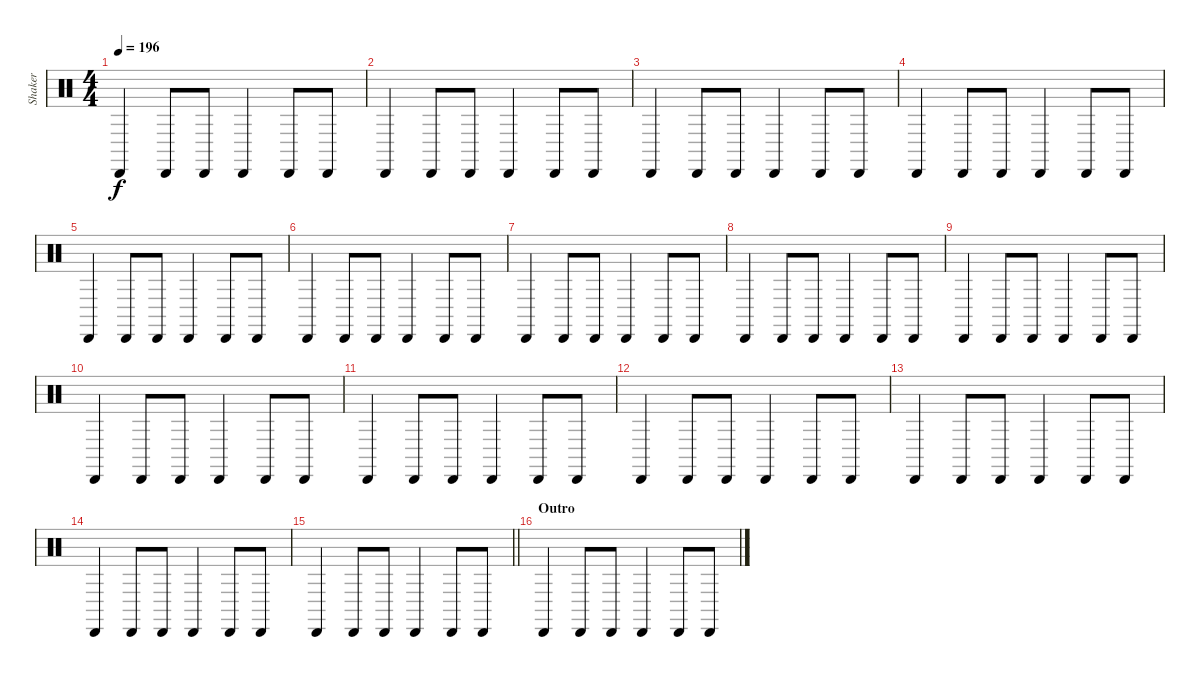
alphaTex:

\track ("Shaker" "Shaker") {instrument percussion bank 126}
\staff {score}
\articulation defaults
\ts (4 4)
\tempo 196
\clef neutral
\ks c "Cabasa (hit)".4{dy f} "Cabasa (hit)".8 "Cabasa (hit)".8 "Cabasa (hit)".4 "Cabasa (hit)".8 "Cabasa (hit)".8
|
"Cabasa (hit)".4 "Cabasa (hit)".8 "Cabasa (hit)".8 "Cabasa (hit)".4 "Cabasa (hit)".8 "Cabasa (hit)".8 |
"Cabasa (hit)".4 "Cabasa (hit)".8 "Cabasa (hit)".8 "Cabasa (hit)".4 "Cabasa (hit)".8 "Cabasa (hit)".8 |
"Cabasa (hit)".4 "Cabasa (hit)".8 "Cabasa (hit)".8 "Cabasa (hit)".4 "Cabasa (hit)".8 "Cabasa (hit)".8 |
"Cabasa (hit)".4 "Cabasa (hit)".8 "Cabasa (hit)".8 "Cabasa (hit)".4 "Cabasa (hit)".8 "Cabasa (hit)".8 |
"Cabasa (hit)".4 "Cabasa (hit)".8 "Cabasa (hit)".8 "Cabasa (hit)".4 "Cabasa (hit)".8 "Cabasa (hit)".8 |
"Cabasa (hit)".4 "Cabasa (hit)".8 "Cabasa (hit)".8 "Cabasa (hit)".4 "Cabasa (hit)".8 "Cabasa (hit)".8 |
"Cabasa (hit)".4 "Cabasa (hit)".8 "Cabasa (hit)".8 "Cabasa (hit)".4 "Cabasa (hit)".8 "Cabasa (hit)".8 |
"Cabasa (hit)".4 "Cabasa (hit)".8 "Cabasa (hit)".8 "Cabasa (hit)".4 "Cabasa (hit)".8 "Cabasa (hit)".8 |
"Cabasa (hit)".4 "Cabasa (hit)".8 "Cabasa (hit)".8 "Cabasa (hit)".4 "Cabasa (hit)".8 "Cabasa (hit)".8 |
"Cabasa (hit)".4 "Cabasa (hit)".8 "Cabasa (hit)".8 "Cabasa (hit)".4 "Cabasa (hit)".8 "Cabasa (hit)".8 |
"Cabasa (hit)".4 "Cabasa (hit)".8 "Cabasa (hit)".8 "Cabasa (hit)".4 "Cabasa (hit)".8 "Cabasa (hit)".8 |
"Cabasa (hit)".4 "Cabasa (hit)".8 "Cabasa (hit)".8 "Cabasa (hit)".4 "Cabasa (hit)".8 "Cabasa (hit)".8 |
"Cabasa (hit)".4 "Cabasa (hit)".8 "Cabasa (hit)".8 "Cabasa (hit)".4 "Cabasa (hit)".8 "Cabasa (hit)".8 |
\barLineRight lightlight "Cabasa (hit)".4 "Cabasa (hit)".8 "Cabasa (hit)".8 "Cabasa (hit)".4 "Cabasa (hit)".8 "Cabasa (hit)".8
|
\section ("" "Outro")
"Cabasa (hit)".4 "Cabasa (hit)".8 "Cabasa (hit)".8 "Cabasa (hit)".4 "Cabasa (hit)".8 "Cabasa (hit)".8
